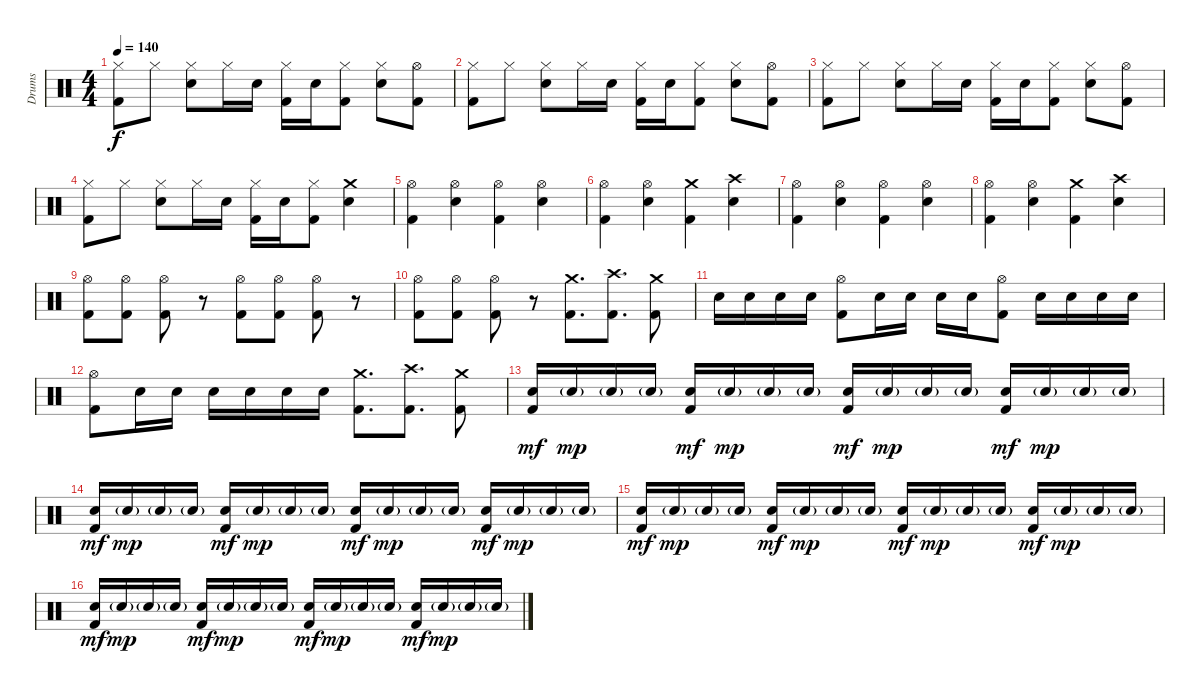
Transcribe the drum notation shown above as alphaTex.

\track ("Drums" "Drums") {instrument percussion}
\staff {score}
\articulation defaults
\ts (4 4)
\tempo 140
\clef neutral
\ks c
("Hi-Hat (closed)" "Kick (hit) 2").8{dy f} "Hi-Hat (closed)".8 ("Hi-Hat (closed)" "Electric Snare (hit)").8 "Hi-Hat (closed)".16 "Electric Snare (hit)".16 ("Hi-Hat (closed)" "Kick (hit) 2").16 "Electric Snare (hit)".16 ("Hi-Hat (closed)" "Kick (hit) 2").8 ("Hi-Hat (closed)" "Electric Snare (hit)").8 ("Hi-Hat (open)" "Kick (hit) 2").8 |
("Hi-Hat (closed)" "Kick (hit) 2").8 "Hi-Hat (closed)".8 ("Hi-Hat (closed)" "Electric Snare (hit)").8 "Hi-Hat (closed)".16 "Electric Snare (hit)".16 ("Hi-Hat (closed)" "Kick (hit) 2").16 "Electric Snare (hit)".16 ("Hi-Hat (closed)" "Kick (hit) 2").8 ("Hi-Hat (closed)" "Electric Snare (hit)").8 ("Hi-Hat (open)" "Kick (hit) 2").8 |
("Hi-Hat (closed)" "Kick (hit) 2").8 "Hi-Hat (closed)".8 ("Hi-Hat (closed)" "Electric Snare (hit)").8 "Hi-Hat (closed)".16 "Electric Snare (hit)".16 ("Hi-Hat (closed)" "Kick (hit) 2").16 "Electric Snare (hit)".16 ("Hi-Hat (closed)" "Kick (hit) 2").8 ("Hi-Hat (closed)" "Electric Snare (hit)").8 ("Hi-Hat (open)" "Kick (hit) 2").8 |
("Hi-Hat (closed)" "Kick (hit) 2").8 "Hi-Hat (closed)".8 ("Hi-Hat (closed)" "Electric Snare (hit)").8 "Hi-Hat (closed)".16 "Electric Snare (hit)".16 ("Hi-Hat (closed)" "Kick (hit) 2").16 "Electric Snare (hit)".16 ("Hi-Hat (closed)" "Kick (hit) 2").8 ("Crash medium (hit)" "Electric Snare (hit)").4 |
("Hi-Hat (open)" "Kick (hit) 2").4 ("Hi-Hat (open)" "Electric Snare (hit)").4 ("Hi-Hat (open)" "Kick (hit) 2").4 ("Hi-Hat (open)" "Electric Snare (hit)").4 |
("Hi-Hat (open)" "Kick (hit) 2").4 ("Hi-Hat (open)" "Electric Snare (hit)").4 ("Crash medium (hit)" "Kick (hit) 2").4 ("Crash high (hit)" "Electric Snare (hit)").4 |
("Hi-Hat (open)" "Kick (hit) 2").4 ("Hi-Hat (open)" "Electric Snare (hit)").4 ("Hi-Hat (open)" "Kick (hit) 2").4 ("Hi-Hat (open)" "Electric Snare (hit)").4 |
("Hi-Hat (open)" "Kick (hit) 2").4 ("Hi-Hat (open)" "Electric Snare (hit)").4 ("Crash medium (hit)" "Kick (hit) 2").4 ("Crash high (hit)" "Electric Snare (hit)").4 |
("Hi-Hat (open)" "Kick (hit) 2").8 ("Hi-Hat (open)" "Kick (hit) 2").8 ("Hi-Hat (open)" "Kick (hit) 2").8 r.8 ("Hi-Hat (open)" "Kick (hit) 2").8 ("Hi-Hat (open)" "Kick (hit) 2").8 ("Hi-Hat (open)" "Kick (hit) 2").8 r.8 |
("Hi-Hat (open)" "Kick (hit) 2").8 ("Hi-Hat (open)" "Kick (hit) 2").8 ("Hi-Hat (open)" "Kick (hit) 2").8 r.8 ("Crash medium (hit)" "Kick (hit) 2").8{d} ("Crash high (hit)" "Kick (hit) 2").8{d} ("Crash medium (hit)" "Kick (hit) 2").8 |
"Electric Snare (hit)".16 "Electric Snare (hit)".16 "Electric Snare (hit)".16 "Electric Snare (hit)".16 ("Hi-Hat (open)" "Kick (hit) 2").8 "Electric Snare (hit)".16 "Electric Snare (hit)".16 "Electric Snare (hit)".16 "Electric Snare (hit)".16 ("Hi-Hat (open)" "Kick (hit) 2").8 "Electric Snare (hit)".16 "Electric Snare (hit)".16 "Electric Snare (hit)".16 "Electric Snare (hit)".16 |
("Hi-Hat (open)" "Kick (hit) 2").8 "Electric Snare (hit)".16 "Electric Snare (hit)".16 "Electric Snare (hit)".16 "Electric Snare (hit)".16 "Electric Snare (hit)".16 "Electric Snare (hit)".16 ("Crash medium (hit)" "Kick (hit) 2").8{d} ("Crash high (hit)" "Kick (hit) 2").8{d} ("Crash medium (hit)" "Kick (hit) 2").8 |
("Electric Snare (hit)" "Kick (hit) 2").16{dy mf} "Electric Snare (hit)"{g}.16{dy mp} "Electric Snare (hit)"{g}.16 "Electric Snare (hit)"{g}.16 ("Electric Snare (hit)" "Kick (hit) 2").16{dy mf} "Electric Snare (hit)"{g}.16{dy mp} "Electric Snare (hit)"{g}.16 "Electric Snare (hit)"{g}.16 ("Electric Snare (hit)" "Kick (hit) 2").16{dy mf} "Electric Snare (hit)"{g}.16{dy mp} "Electric Snare (hit)"{g}.16 "Electric Snare (hit)"{g}.16 ("Electric Snare (hit)" "Kick (hit) 2").16{dy mf} "Electric Snare (hit)"{g}.16{dy mp} "Electric Snare (hit)"{g}.16 "Electric Snare (hit)"{g}.16 |
("Electric Snare (hit)" "Kick (hit) 2").16{dy mf} "Electric Snare (hit)"{g}.16{dy mp} "Electric Snare (hit)"{g}.16 "Electric Snare (hit)"{g}.16 ("Electric Snare (hit)" "Kick (hit) 2").16{dy mf} "Electric Snare (hit)"{g}.16{dy mp} "Electric Snare (hit)"{g}.16 "Electric Snare (hit)"{g}.16 ("Electric Snare (hit)" "Kick (hit) 2").16{dy mf} "Electric Snare (hit)"{g}.16{dy mp} "Electric Snare (hit)"{g}.16 "Electric Snare (hit)"{g}.16 ("Electric Snare (hit)" "Kick (hit) 2").16{dy mf} "Electric Snare (hit)"{g}.16{dy mp} "Electric Snare (hit)"{g}.16 "Electric Snare (hit)"{g}.16 |
("Electric Snare (hit)" "Kick (hit) 2").16{dy mf} "Electric Snare (hit)"{g}.16{dy mp} "Electric Snare (hit)"{g}.16 "Electric Snare (hit)"{g}.16 ("Electric Snare (hit)" "Kick (hit) 2").16{dy mf} "Electric Snare (hit)"{g}.16{dy mp} "Electric Snare (hit)"{g}.16 "Electric Snare (hit)"{g}.16 ("Electric Snare (hit)" "Kick (hit) 2").16{dy mf} "Electric Snare (hit)"{g}.16{dy mp} "Electric Snare (hit)"{g}.16 "Electric Snare (hit)"{g}.16 ("Electric Snare (hit)" "Kick (hit) 2").16{dy mf} "Electric Snare (hit)"{g}.16{dy mp} "Electric Snare (hit)"{g}.16 "Electric Snare (hit)"{g}.16 |
("Electric Snare (hit)" "Kick (hit) 2").16{dy mf} "Electric Snare (hit)"{g}.16{dy mp} "Electric Snare (hit)"{g}.16 "Electric Snare (hit)"{g}.16 ("Electric Snare (hit)" "Kick (hit) 2").16{dy mf} "Electric Snare (hit)"{g}.16{dy mp} "Electric Snare (hit)"{g}.16 "Electric Snare (hit)"{g}.16 ("Electric Snare (hit)" "Kick (hit) 2").16{dy mf} "Electric Snare (hit)"{g}.16{dy mp} "Electric Snare (hit)"{g}.16 "Electric Snare (hit)"{g}.16 ("Electric Snare (hit)" "Kick (hit) 2").16{dy mf} "Electric Snare (hit)"{g}.16{dy mp} "Electric Snare (hit)"{g}.16 "Electric Snare (hit)"{g}.16
